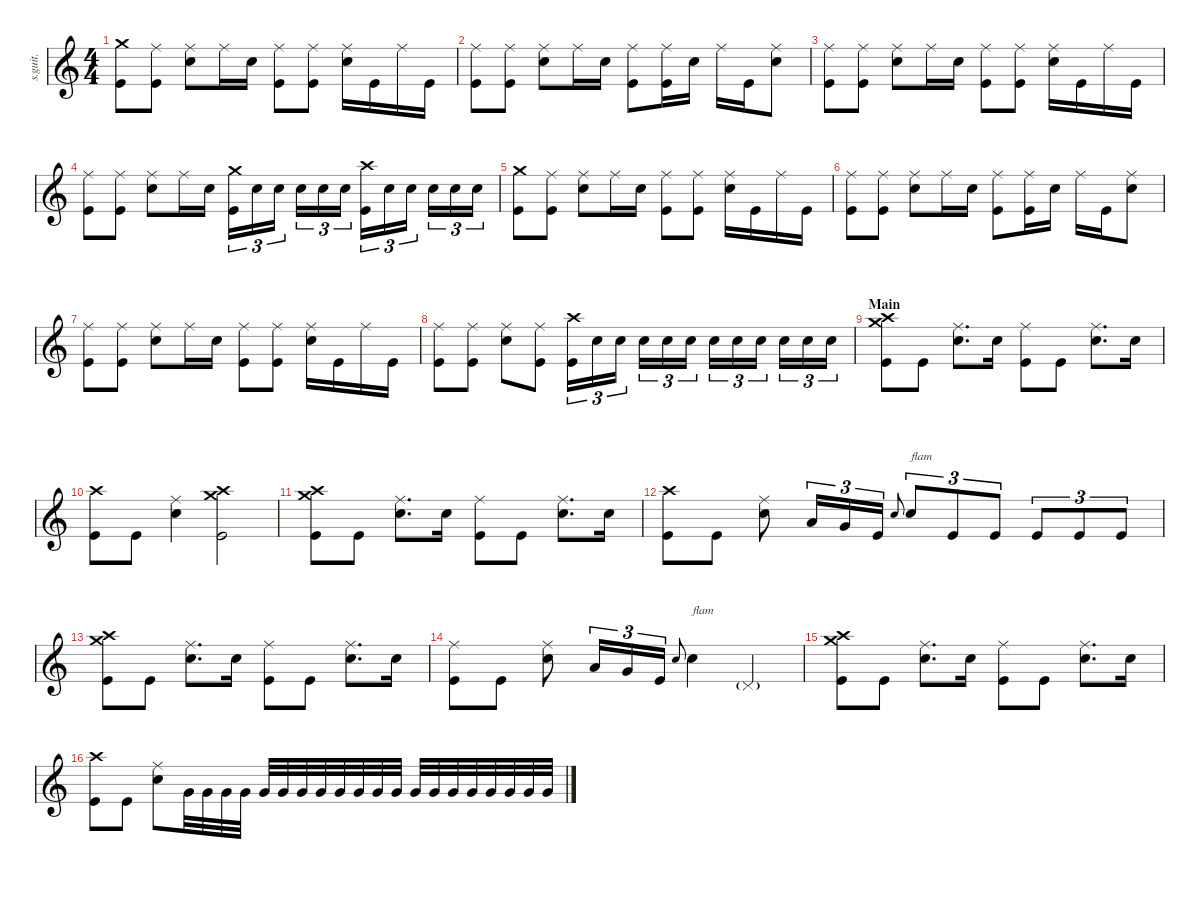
\defaultSystemsLayout 4
\hideDynamics
\bracketExtendMode nobrackets
\track ("Dave Grohl" "s.guit.") {instrument percussion}
\staff {score}
\articulation defaults
\ts (4 4)
\tempo (105 hide)
\clef g2
\ks c
("Crash medium (hit)" "Kick (hit)").8{lyrics (0 "") lyrics (1 "") lyrics (2 "") lyrics (3 "") lyrics (4 "") dy f} ("Ride (middle)" "Kick (hit)").8{lyrics (0 "") lyrics (1 "") lyrics (2 "") lyrics (3 "") lyrics (4 "")} ("Ride (middle)" "Snare (hit) 2").8{lyrics (0 "") lyrics (1 "") lyrics (2 "") lyrics (3 "") lyrics (4 "")} "Ride (middle)".16{lyrics (0 "") lyrics (1 "") lyrics (2 "") lyrics (3 "") lyrics (4 "")} "Snare (hit) 2".16{lyrics (0 "") lyrics (1 "") lyrics (2 "") lyrics (3 "") lyrics (4 "")} ("Ride (middle)" "Kick (hit)").8{lyrics (0 "") lyrics (1 "") lyrics (2 "") lyrics (3 "") lyrics (4 "")} ("Ride (middle)" "Kick (hit)").8{lyrics (0 "") lyrics (1 "") lyrics (2 "") lyrics (3 "") lyrics (4 "")} ("Ride (middle)" "Snare (hit) 2").16{lyrics (0 "") lyrics (1 "") lyrics (2 "") lyrics (3 "") lyrics (4 "")} "Kick (hit)".16{lyrics (0 "") lyrics (1 "") lyrics (2 "") lyrics (3 "") lyrics (4 "")} "Ride (middle)".16{lyrics (0 "") lyrics (1 "") lyrics (2 "") lyrics (3 "") lyrics (4 "")} "Kick (hit)".16{lyrics (0 "") lyrics (1 "") lyrics (2 "") lyrics (3 "") lyrics (4 "")} |
("Ride (middle)" "Kick (hit)").8{lyrics (0 "") lyrics (1 "") lyrics (2 "") lyrics (3 "") lyrics (4 "")} ("Ride (middle)" "Kick (hit)").8{lyrics (0 "") lyrics (1 "") lyrics (2 "") lyrics (3 "") lyrics (4 "")} ("Ride (middle)" "Snare (hit) 2").8{lyrics (0 "") lyrics (1 "") lyrics (2 "") lyrics (3 "") lyrics (4 "")} "Ride (middle)".16{lyrics (0 "") lyrics (1 "") lyrics (2 "") lyrics (3 "") lyrics (4 "")} "Snare (hit) 2".16{lyrics (0 "") lyrics (1 "") lyrics (2 "") lyrics (3 "") lyrics (4 "")} ("Ride (middle)" "Kick (hit)").8{lyrics (0 "") lyrics (1 "") lyrics (2 "") lyrics (3 "") lyrics (4 "")} ("Ride (middle)" "Kick (hit)").16{lyrics (0 "") lyrics (1 "") lyrics (2 "") lyrics (3 "") lyrics (4 "")} "Snare (hit) 2".16{lyrics (0 "") lyrics (1 "") lyrics (2 "") lyrics (3 "") lyrics (4 "")} "Ride (middle)".16{lyrics (0 "") lyrics (1 "") lyrics (2 "") lyrics (3 "") lyrics (4 "")} "Kick (hit)".16{lyrics (0 "") lyrics (1 "") lyrics (2 "") lyrics (3 "") lyrics (4 "")} ("Ride (middle)" "Snare (hit) 2").8{lyrics (0 "") lyrics (1 "") lyrics (2 "") lyrics (3 "") lyrics (4 "")} |
("Ride (middle)" "Kick (hit)").8{lyrics (0 "") lyrics (1 "") lyrics (2 "") lyrics (3 "") lyrics (4 "")} ("Ride (middle)" "Kick (hit)").8{lyrics (0 "") lyrics (1 "") lyrics (2 "") lyrics (3 "") lyrics (4 "")} ("Ride (middle)" "Snare (hit) 2").8{lyrics (0 "") lyrics (1 "") lyrics (2 "") lyrics (3 "") lyrics (4 "")} "Ride (middle)".16{lyrics (0 "") lyrics (1 "") lyrics (2 "") lyrics (3 "") lyrics (4 "")} "Snare (hit) 2".16{lyrics (0 "") lyrics (1 "") lyrics (2 "") lyrics (3 "") lyrics (4 "")} ("Ride (middle)" "Kick (hit)").8{lyrics (0 "") lyrics (1 "") lyrics (2 "") lyrics (3 "") lyrics (4 "")} ("Ride (middle)" "Kick (hit)").8{lyrics (0 "") lyrics (1 "") lyrics (2 "") lyrics (3 "") lyrics (4 "")} ("Ride (middle)" "Snare (hit) 2").16{lyrics (0 "") lyrics (1 "") lyrics (2 "") lyrics (3 "") lyrics (4 "")} "Kick (hit)".16{lyrics (0 "") lyrics (1 "") lyrics (2 "") lyrics (3 "") lyrics (4 "")} "Ride (middle)".16{lyrics (0 "") lyrics (1 "") lyrics (2 "") lyrics (3 "") lyrics (4 "")} "Kick (hit)".16{lyrics (0 "") lyrics (1 "") lyrics (2 "") lyrics (3 "") lyrics (4 "")} |
("Ride (middle)" "Kick (hit)").8{lyrics (0 "") lyrics (1 "") lyrics (2 "") lyrics (3 "") lyrics (4 "")} ("Ride (middle)" "Kick (hit)").8{lyrics (0 "") lyrics (1 "") lyrics (2 "") lyrics (3 "") lyrics (4 "")} ("Ride (middle)" "Snare (hit) 2").8{lyrics (0 "") lyrics (1 "") lyrics (2 "") lyrics (3 "") lyrics (4 "")} "Ride (middle)".16{lyrics (0 "") lyrics (1 "") lyrics (2 "") lyrics (3 "") lyrics (4 "")} "Snare (hit) 2".16{lyrics (0 "") lyrics (1 "") lyrics (2 "") lyrics (3 "") lyrics (4 "") dy mf} ("Kick (hit)" "Crash medium (hit)").16{tu (3 2) lyrics (0 "") lyrics (1 "") lyrics (2 "") lyrics (3 "") lyrics (4 "") dy f} "Snare (hit) 2".16{tu (3 2) lyrics (0 "") lyrics (1 "") lyrics (2 "") lyrics (3 "") lyrics (4 "") dy mp} "Snare (hit) 2".16{tu (3 2) lyrics (0 "") lyrics (1 "") lyrics (2 "") lyrics (3 "") lyrics (4 "") dy mf} "Snare (hit) 2".16{tu (3 2) lyrics (0 "") lyrics (1 "") lyrics (2 "") lyrics (3 "") lyrics (4 "") dy f} "Snare (hit) 2".16{tu (3 2) lyrics (0 "") lyrics (1 "") lyrics (2 "") lyrics (3 "") lyrics (4 "")} "Snare (hit) 2".16{tu (3 2) lyrics (0 "") lyrics (1 "") lyrics (2 "") lyrics (3 "") lyrics (4 "")} ("Crash high (hit)" "Kick (hit)").16{tu (3 2) lyrics (0 "") lyrics (1 "") lyrics (2 "") lyrics (3 "") lyrics (4 "")} "Snare (hit) 2".16{tu (3 2) lyrics (0 "") lyrics (1 "") lyrics (2 "") lyrics (3 "") lyrics (4 "") dy mp} "Snare (hit) 2".16{tu (3 2) lyrics (0 "") lyrics (1 "") lyrics (2 "") lyrics (3 "") lyrics (4 "") dy mf} "Snare (hit) 2".16{tu (3 2) lyrics (0 "") lyrics (1 "") lyrics (2 "") lyrics (3 "") lyrics (4 "") dy f} "Snare (hit) 2".16{tu (3 2) lyrics (0 "") lyrics (1 "") lyrics (2 "") lyrics (3 "") lyrics (4 "")} "Snare (hit) 2".16{tu (3 2) lyrics (0 "") lyrics (1 "") lyrics (2 "") lyrics (3 "") lyrics (4 "")} |
("Crash medium (hit)" "Kick (hit)").8{lyrics (0 "") lyrics (1 "") lyrics (2 "") lyrics (3 "") lyrics (4 "")} ("Ride (middle)" "Kick (hit)").8{lyrics (0 "") lyrics (1 "") lyrics (2 "") lyrics (3 "") lyrics (4 "")} ("Ride (middle)" "Snare (hit) 2").8{lyrics (0 "") lyrics (1 "") lyrics (2 "") lyrics (3 "") lyrics (4 "")} "Ride (middle)".16{lyrics (0 "") lyrics (1 "") lyrics (2 "") lyrics (3 "") lyrics (4 "")} "Snare (hit) 2".16{lyrics (0 "") lyrics (1 "") lyrics (2 "") lyrics (3 "") lyrics (4 "")} ("Ride (middle)" "Kick (hit)").8{lyrics (0 "") lyrics (1 "") lyrics (2 "") lyrics (3 "") lyrics (4 "")} ("Ride (middle)" "Kick (hit)").8{lyrics (0 "") lyrics (1 "") lyrics (2 "") lyrics (3 "") lyrics (4 "")} ("Ride (middle)" "Snare (hit) 2").16{lyrics (0 "") lyrics (1 "") lyrics (2 "") lyrics (3 "") lyrics (4 "")} "Kick (hit)".16{lyrics (0 "") lyrics (1 "") lyrics (2 "") lyrics (3 "") lyrics (4 "")} "Ride (middle)".16{lyrics (0 "") lyrics (1 "") lyrics (2 "") lyrics (3 "") lyrics (4 "")} "Kick (hit)".16{lyrics (0 "") lyrics (1 "") lyrics (2 "") lyrics (3 "") lyrics (4 "")} |
("Ride (middle)" "Kick (hit)").8{lyrics (0 "") lyrics (1 "") lyrics (2 "") lyrics (3 "") lyrics (4 "")} ("Ride (middle)" "Kick (hit)").8{lyrics (0 "") lyrics (1 "") lyrics (2 "") lyrics (3 "") lyrics (4 "")} ("Ride (middle)" "Snare (hit) 2").8{lyrics (0 "") lyrics (1 "") lyrics (2 "") lyrics (3 "") lyrics (4 "")} "Ride (middle)".16{lyrics (0 "") lyrics (1 "") lyrics (2 "") lyrics (3 "") lyrics (4 "")} "Snare (hit) 2".16{lyrics (0 "") lyrics (1 "") lyrics (2 "") lyrics (3 "") lyrics (4 "")} ("Ride (middle)" "Kick (hit)").8{lyrics (0 "") lyrics (1 "") lyrics (2 "") lyrics (3 "") lyrics (4 "")} ("Ride (middle)" "Kick (hit)").16{lyrics (0 "") lyrics (1 "") lyrics (2 "") lyrics (3 "") lyrics (4 "")} "Snare (hit) 2".16{lyrics (0 "") lyrics (1 "") lyrics (2 "") lyrics (3 "") lyrics (4 "")} "Ride (middle)".16{lyrics (0 "") lyrics (1 "") lyrics (2 "") lyrics (3 "") lyrics (4 "")} "Kick (hit)".16{lyrics (0 "") lyrics (1 "") lyrics (2 "") lyrics (3 "") lyrics (4 "")} ("Ride (middle)" "Snare (hit) 2").8{lyrics (0 "") lyrics (1 "") lyrics (2 "") lyrics (3 "") lyrics (4 "")} |
("Ride (middle)" "Kick (hit)").8{lyrics (0 "") lyrics (1 "") lyrics (2 "") lyrics (3 "") lyrics (4 "")} ("Ride (middle)" "Kick (hit)").8{lyrics (0 "") lyrics (1 "") lyrics (2 "") lyrics (3 "") lyrics (4 "")} ("Ride (middle)" "Snare (hit) 2").8{lyrics (0 "") lyrics (1 "") lyrics (2 "") lyrics (3 "") lyrics (4 "")} "Ride (middle)".16{lyrics (0 "") lyrics (1 "") lyrics (2 "") lyrics (3 "") lyrics (4 "")} "Snare (hit) 2".16{lyrics (0 "") lyrics (1 "") lyrics (2 "") lyrics (3 "") lyrics (4 "")} ("Ride (middle)" "Kick (hit)").8{lyrics (0 "") lyrics (1 "") lyrics (2 "") lyrics (3 "") lyrics (4 "")} ("Ride (middle)" "Kick (hit)").8{lyrics (0 "") lyrics (1 "") lyrics (2 "") lyrics (3 "") lyrics (4 "")} ("Ride (middle)" "Snare (hit) 2").16{lyrics (0 "") lyrics (1 "") lyrics (2 "") lyrics (3 "") lyrics (4 "")} "Kick (hit)".16{lyrics (0 "") lyrics (1 "") lyrics (2 "") lyrics (3 "") lyrics (4 "")} "Ride (middle)".16{lyrics (0 "") lyrics (1 "") lyrics (2 "") lyrics (3 "") lyrics (4 "")} "Kick (hit)".16{lyrics (0 "") lyrics (1 "") lyrics (2 "") lyrics (3 "") lyrics (4 "")} |
("Ride (middle)" "Kick (hit)").8{lyrics (0 "") lyrics (1 "") lyrics (2 "") lyrics (3 "") lyrics (4 "")} ("Ride (middle)" "Kick (hit)").8{lyrics (0 "") lyrics (1 "") lyrics (2 "") lyrics (3 "") lyrics (4 "")} ("Ride (middle)" "Snare (hit) 2").8{lyrics (0 "") lyrics (1 "") lyrics (2 "") lyrics (3 "") lyrics (4 "")} ("Ride (middle)" "Kick (hit)").8{lyrics (0 "") lyrics (1 "") lyrics (2 "") lyrics (3 "") lyrics (4 "")} ("Crash high (hit)" "Kick (hit)").16{tu (3 2) lyrics (0 "") lyrics (1 "") lyrics (2 "") lyrics (3 "") lyrics (4 "")} "Snare (hit) 2".16{tu (3 2) lyrics (0 "") lyrics (1 "") lyrics (2 "") lyrics (3 "") lyrics (4 "") dy mp} "Snare (hit) 2".16{tu (3 2) lyrics (0 "") lyrics (1 "") lyrics (2 "") lyrics (3 "") lyrics (4 "")} "Snare (hit) 2".16{tu (3 2) lyrics (0 "") lyrics (1 "") lyrics (2 "") lyrics (3 "") lyrics (4 "") dy mf} "Snare (hit) 2".16{tu (3 2) lyrics (0 "") lyrics (1 "") lyrics (2 "") lyrics (3 "") lyrics (4 "")} "Snare (hit) 2".16{tu (3 2) lyrics (0 "") lyrics (1 "") lyrics (2 "") lyrics (3 "") lyrics (4 "")} "Snare (hit) 2".16{tu (3 2) lyrics (0 "") lyrics (1 "") lyrics (2 "") lyrics (3 "") lyrics (4 "") dy f} "Snare (hit) 2".16{tu (3 2) lyrics (0 "") lyrics (1 "") lyrics (2 "") lyrics (3 "") lyrics (4 "")} "Snare (hit) 2".16{tu (3 2) lyrics (0 "") lyrics (1 "") lyrics (2 "") lyrics (3 "") lyrics (4 "")} "Snare (hit) 2".16{tu (3 2) lyrics (0 "") lyrics (1 "") lyrics (2 "") lyrics (3 "") lyrics (4 "")} "Snare (hit) 2".16{tu (3 2) lyrics (0 "") lyrics (1 "") lyrics (2 "") lyrics (3 "") lyrics (4 "")} "Snare (hit) 2".16{tu (3 2) lyrics (0 "") lyrics (1 "") lyrics (2 "") lyrics (3 "") lyrics (4 "")} |
\section ("" "Main")
("Crash high (hit)" "Crash medium (hit)" "Kick (hit)").8{lyrics (0 "") lyrics (1 "") lyrics (2 "") lyrics (3 "") lyrics (4 "") dy mf} "Kick (hit)".8{lyrics (0 "") lyrics (1 "") lyrics (2 "") lyrics (3 "") lyrics (4 "") dy f} ("Ride (middle)" "Snare (hit) 2").8{d lyrics (0 "") lyrics (1 "") lyrics (2 "") lyrics (3 "") lyrics (4 "")} "Snare (hit) 2".16{lyrics (0 "") lyrics (1 "") lyrics (2 "") lyrics (3 "") lyrics (4 "")} ("Kick (hit)" "Ride (middle)").8{lyrics (0 "") lyrics (1 "") lyrics (2 "") lyrics (3 "") lyrics (4 "") dy mf} "Kick (hit)".8{lyrics (0 "") lyrics (1 "") lyrics (2 "") lyrics (3 "") lyrics (4 "") dy f} ("Ride (middle)" "Snare (hit) 2").8{d lyrics (0 "") lyrics (1 "") lyrics (2 "") lyrics (3 "") lyrics (4 "")} "Snare (hit) 2".16{lyrics (0 "") lyrics (1 "") lyrics (2 "") lyrics (3 "") lyrics (4 "")} |
("Crash high (hit)" "Kick (hit)").8{lyrics (0 "") lyrics (1 "") lyrics (2 "") lyrics (3 "") lyrics (4 "") dy mf} "Kick (hit)".8{lyrics (0 "") lyrics (1 "") lyrics (2 "") lyrics (3 "") lyrics (4 "") dy f} ("Ride (middle)" "Snare (hit) 2").4{lyrics (0 "") lyrics (1 "") lyrics (2 "") lyrics (3 "") lyrics (4 "")} ("Crash high (hit)" "Crash medium (hit)" "Kick (hit)").2{lyrics (0 "") lyrics (1 "") lyrics (2 "") lyrics (3 "") lyrics (4 "")} |
("Crash high (hit)" "Crash medium (hit)" "Kick (hit)").8{lyrics (0 "") lyrics (1 "") lyrics (2 "") lyrics (3 "") lyrics (4 "") dy mf} "Kick (hit)".8{lyrics (0 "") lyrics (1 "") lyrics (2 "") lyrics (3 "") lyrics (4 "") dy f} ("Ride (middle)" "Snare (hit) 2").8{d lyrics (0 "") lyrics (1 "") lyrics (2 "") lyrics (3 "") lyrics (4 "")} "Snare (hit) 2".16{lyrics (0 "") lyrics (1 "") lyrics (2 "") lyrics (3 "") lyrics (4 "")} ("Kick (hit)" "Ride (middle)").8{lyrics (0 "") lyrics (1 "") lyrics (2 "") lyrics (3 "") lyrics (4 "")} "Kick (hit)".8{lyrics (0 "") lyrics (1 "") lyrics (2 "") lyrics (3 "") lyrics (4 "")} ("Ride (middle)" "Snare (hit) 2").8{d lyrics (0 "") lyrics (1 "") lyrics (2 "") lyrics (3 "") lyrics (4 "")} "Snare (hit) 2".16{lyrics (0 "") lyrics (1 "") lyrics (2 "") lyrics (3 "") lyrics (4 "")} |
("Crash high (hit)" "Kick (hit)").8{lyrics (0 "") lyrics (1 "") lyrics (2 "") lyrics (3 "") lyrics (4 "")} "Kick (hit)".8{lyrics (0 "") lyrics (1 "") lyrics (2 "") lyrics (3 "") lyrics (4 "")} ("Ride (middle)" "Snare (hit) 2").8{lyrics (0 "") lyrics (1 "") lyrics (2 "") lyrics (3 "") lyrics (4 "")} "Low Floor Tom (hit)".16{tu (3 2) lyrics (0 "") lyrics (1 "") lyrics (2 "") lyrics (3 "") lyrics (4 "")} "Very Low Tom (hit)".16{tu (3 2) lyrics (0 "") lyrics (1 "") lyrics (2 "") lyrics (3 "") lyrics (4 "")} "Kick (hit)".16{tu (3 2) lyrics (0 "") lyrics (1 "") lyrics (2 "") lyrics (3 "") lyrics (4 "")} "Snare (hit) 2".8{lyrics (0 "") lyrics (1 "") lyrics (2 "") lyrics (3 "") lyrics (4 "") gr onbeat} "Snare (hit) 2".8{tu (3 2) txt "flam" lyrics (0 "") lyrics (1 "") lyrics (2 "") lyrics (3 "") lyrics (4 "")} "Kick (hit)".8{tu (3 2) lyrics (0 "") lyrics (1 "") lyrics (2 "") lyrics (3 "") lyrics (4 "")} "Kick (hit)".8{tu (3 2) lyrics (0 "") lyrics (1 "") lyrics (2 "") lyrics (3 "") lyrics (4 "")} "Kick (hit)".8{tu (3 2) lyrics (0 "") lyrics (1 "") lyrics (2 "") lyrics (3 "") lyrics (4 "")} "Kick (hit)".8{tu (3 2) lyrics (0 "") lyrics (1 "") lyrics (2 "") lyrics (3 "") lyrics (4 "")} "Kick (hit)".8{tu (3 2) lyrics (0 "") lyrics (1 "") lyrics (2 "") lyrics (3 "") lyrics (4 "")} |
("Crash high (hit)" "Crash medium (hit)" "Kick (hit)").8{lyrics (0 "") lyrics (1 "") lyrics (2 "") lyrics (3 "") lyrics (4 "") dy mf} "Kick (hit)".8{lyrics (0 "") lyrics (1 "") lyrics (2 "") lyrics (3 "") lyrics (4 "") dy f} ("Ride (middle)" "Snare (hit) 2").8{d lyrics (0 "") lyrics (1 "") lyrics (2 "") lyrics (3 "") lyrics (4 "")} "Snare (hit) 2".16{lyrics (0 "") lyrics (1 "") lyrics (2 "") lyrics (3 "") lyrics (4 "")} ("Kick (hit)" "Ride (middle)").8{lyrics (0 "") lyrics (1 "") lyrics (2 "") lyrics (3 "") lyrics (4 "")} "Kick (hit)".8{lyrics (0 "") lyrics (1 "") lyrics (2 "") lyrics (3 "") lyrics (4 "")} ("Ride (middle)" "Snare (hit) 2").8{d lyrics (0 "") lyrics (1 "") lyrics (2 "") lyrics (3 "") lyrics (4 "")} "Snare (hit) 2".16{lyrics (0 "") lyrics (1 "") lyrics (2 "") lyrics (3 "") lyrics (4 "")} |
("Kick (hit)" "Ride (middle)").8{lyrics (0 "") lyrics (1 "") lyrics (2 "") lyrics (3 "") lyrics (4 "")} "Kick (hit)".8{lyrics (0 "") lyrics (1 "") lyrics (2 "") lyrics (3 "") lyrics (4 "")} ("Ride (middle)" "Snare (hit) 2").8{lyrics (0 "") lyrics (1 "") lyrics (2 "") lyrics (3 "") lyrics (4 "")} "Low Floor Tom (hit)".16{tu (3 2) lyrics (0 "") lyrics (1 "") lyrics (2 "") lyrics (3 "") lyrics (4 "")} "Very Low Tom (hit)".16{tu (3 2) lyrics (0 "") lyrics (1 "") lyrics (2 "") lyrics (3 "") lyrics (4 "")} "Kick (hit)".16{tu (3 2) lyrics (0 "") lyrics (1 "") lyrics (2 "") lyrics (3 "") lyrics (4 "")} "Snare (hit) 2".8{lyrics (0 "") lyrics (1 "") lyrics (2 "") lyrics (3 "") lyrics (4 "") gr onbeat} "Snare (hit) 2".4{txt "flam" lyrics (0 "") lyrics (1 "") lyrics (2 "") lyrics (3 "") lyrics (4 "")} "Pedal Hi-Hat (hit)"{g}.4{lyrics (0 "") lyrics (1 "") lyrics (2 "") lyrics (3 "") lyrics (4 "")} |
("Crash high (hit)" "Crash medium (hit)" "Kick (hit)").8{lyrics (0 "") lyrics (1 "") lyrics (2 "") lyrics (3 "") lyrics (4 "") dy mf} "Kick (hit)".8{lyrics (0 "") lyrics (1 "") lyrics (2 "") lyrics (3 "") lyrics (4 "") dy f} ("Ride (middle)" "Snare (hit) 2").8{d lyrics (0 "") lyrics (1 "") lyrics (2 "") lyrics (3 "") lyrics (4 "")} "Snare (hit) 2".16{lyrics (0 "") lyrics (1 "") lyrics (2 "") lyrics (3 "") lyrics (4 "")} ("Kick (hit)" "Ride (middle)").8{lyrics (0 "") lyrics (1 "") lyrics (2 "") lyrics (3 "") lyrics (4 "")} "Kick (hit)".8{lyrics (0 "") lyrics (1 "") lyrics (2 "") lyrics (3 "") lyrics (4 "")} ("Ride (middle)" "Snare (hit) 2").8{d lyrics (0 "") lyrics (1 "") lyrics (2 "") lyrics (3 "") lyrics (4 "")} "Snare (hit) 2".16{lyrics (0 "") lyrics (1 "") lyrics (2 "") lyrics (3 "") lyrics (4 "")} |
("Crash high (hit)" "Kick (hit)").8{lyrics (0 "") lyrics (1 "") lyrics (2 "") lyrics (3 "") lyrics (4 "")} "Kick (hit)".8{lyrics (0 "") lyrics (1 "") lyrics (2 "") lyrics (3 "") lyrics (4 "")} ("Ride (middle)" "Snare (hit) 2").8{lyrics (0 "") lyrics (1 "") lyrics (2 "") lyrics (3 "") lyrics (4 "")} "Very Low Tom (hit)".32{lyrics (0 "") lyrics (1 "") lyrics (2 "") lyrics (3 "") lyrics (4 "") dy ppp} "Very Low Tom (hit)".32{lyrics (0 "") lyrics (1 "") lyrics (2 "") lyrics (3 "") lyrics (4 "")} "Very Low Tom (hit)".32{lyrics (0 "") lyrics (1 "") lyrics (2 "") lyrics (3 "") lyrics (4 "")} "Very Low Tom (hit)".32{lyrics (0 "") lyrics (1 "") lyrics (2 "") lyrics (3 "") lyrics (4 "")} "Very Low Tom (hit)".32{lyrics (0 "") lyrics (1 "") lyrics (2 "") lyrics (3 "") lyrics (4 "")} "Very Low Tom (hit)".32{lyrics (0 "") lyrics (1 "") lyrics (2 "") lyrics (3 "") lyrics (4 "") dy pp} "Very Low Tom (hit)".32{lyrics (0 "") lyrics (1 "") lyrics (2 "") lyrics (3 "") lyrics (4 "")} "Very Low Tom (hit)".32{lyrics (0 "") lyrics (1 "") lyrics (2 "") lyrics (3 "") lyrics (4 "")} "Very Low Tom (hit)".32{lyrics (0 "") lyrics (1 "") lyrics (2 "") lyrics (3 "") lyrics (4 "")} "Very Low Tom (hit)".32{lyrics (0 "") lyrics (1 "") lyrics (2 "") lyrics (3 "") lyrics (4 "") dy p} "Very Low Tom (hit)".32{lyrics (0 "") lyrics (1 "") lyrics (2 "") lyrics (3 "") lyrics (4 "")} "Very Low Tom (hit)".32{lyrics (0 "") lyrics (1 "") lyrics (2 "") lyrics (3 "") lyrics (4 "")} "Very Low Tom (hit)".32{lyrics (0 "") lyrics (1 "") lyrics (2 "") lyrics (3 "") lyrics (4 "")} "Very Low Tom (hit)".32{lyrics (0 "") lyrics (1 "") lyrics (2 "") lyrics (3 "") lyrics (4 "") dy mp} "Very Low Tom (hit)".32{lyrics (0 "") lyrics (1 "") lyrics (2 "") lyrics (3 "") lyrics (4 "")} "Very Low Tom (hit)".32{lyrics (0 "") lyrics (1 "") lyrics (2 "") lyrics (3 "") lyrics (4 "")} "Very Low Tom (hit)".32{lyrics (0 "") lyrics (1 "") lyrics (2 "") lyrics (3 "") lyrics (4 "")} "Very Low Tom (hit)".32{lyrics (0 "") lyrics (1 "") lyrics (2 "") lyrics (3 "") lyrics (4 "")} "Very Low Tom (hit)".32{lyrics (0 "") lyrics (1 "") lyrics (2 "") lyrics (3 "") lyrics (4 "")} "Very Low Tom (hit)".32{lyrics (0 "") lyrics (1 "") lyrics (2 "") lyrics (3 "") lyrics (4 "")}
